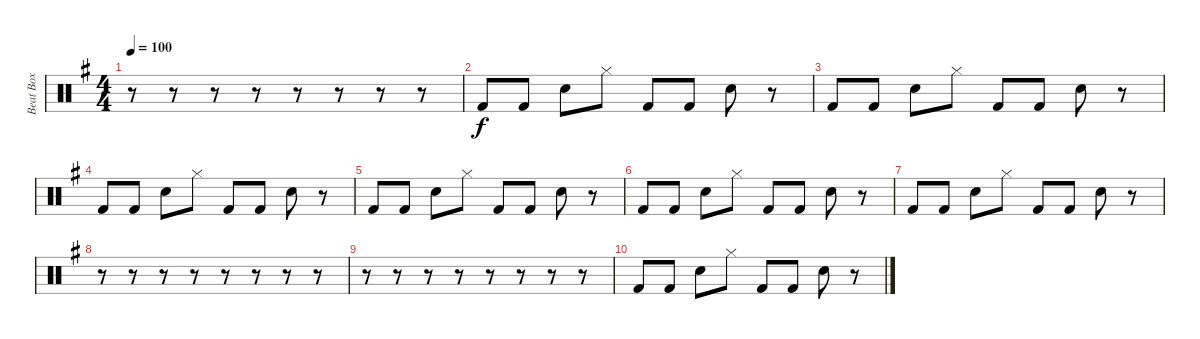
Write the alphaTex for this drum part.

\track ("Beat Box" "Beat Box") {instrument percussion}
\staff {score}
\articulation defaults
\ts (4 4)
\tempo 100
\clef neutral
\ks g
r.8{dy f} r.8 r.8 r.8 r.8 r.8 r.8 r.8 |
"Kick (hit) 2".8 "Kick (hit) 2".8 "Snare (hit) 2".8 "Hi-Hat (closed)".8 "Kick (hit) 2".8 "Kick (hit) 2".8 "Snare (hit) 2".8 r.8 |
"Kick (hit) 2".8 "Kick (hit) 2".8 "Snare (hit) 2".8 "Hi-Hat (closed)".8 "Kick (hit) 2".8 "Kick (hit) 2".8 "Snare (hit) 2".8 r.8 |
"Kick (hit) 2".8 "Kick (hit) 2".8 "Snare (hit) 2".8 "Hi-Hat (closed)".8 "Kick (hit) 2".8 "Kick (hit) 2".8 "Snare (hit) 2".8 r.8 |
"Kick (hit) 2".8 "Kick (hit) 2".8 "Snare (hit) 2".8 "Hi-Hat (closed)".8 "Kick (hit) 2".8 "Kick (hit) 2".8 "Snare (hit) 2".8 r.8 |
"Kick (hit) 2".8 "Kick (hit) 2".8 "Snare (hit) 2".8 "Hi-Hat (closed)".8 "Kick (hit) 2".8 "Kick (hit) 2".8 "Snare (hit) 2".8 r.8 |
"Kick (hit) 2".8 "Kick (hit) 2".8 "Snare (hit) 2".8 "Hi-Hat (closed)".8 "Kick (hit) 2".8 "Kick (hit) 2".8 "Snare (hit) 2".8 r.8 |
r.8 r.8 r.8 r.8 r.8 r.8 r.8 r.8 |
r.8 r.8 r.8 r.8 r.8 r.8 r.8 r.8 |
"Kick (hit) 2".8 "Kick (hit) 2".8 "Snare (hit) 2".8 "Hi-Hat (closed)".8 "Kick (hit) 2".8 "Kick (hit) 2".8 "Snare (hit) 2".8 r.8
